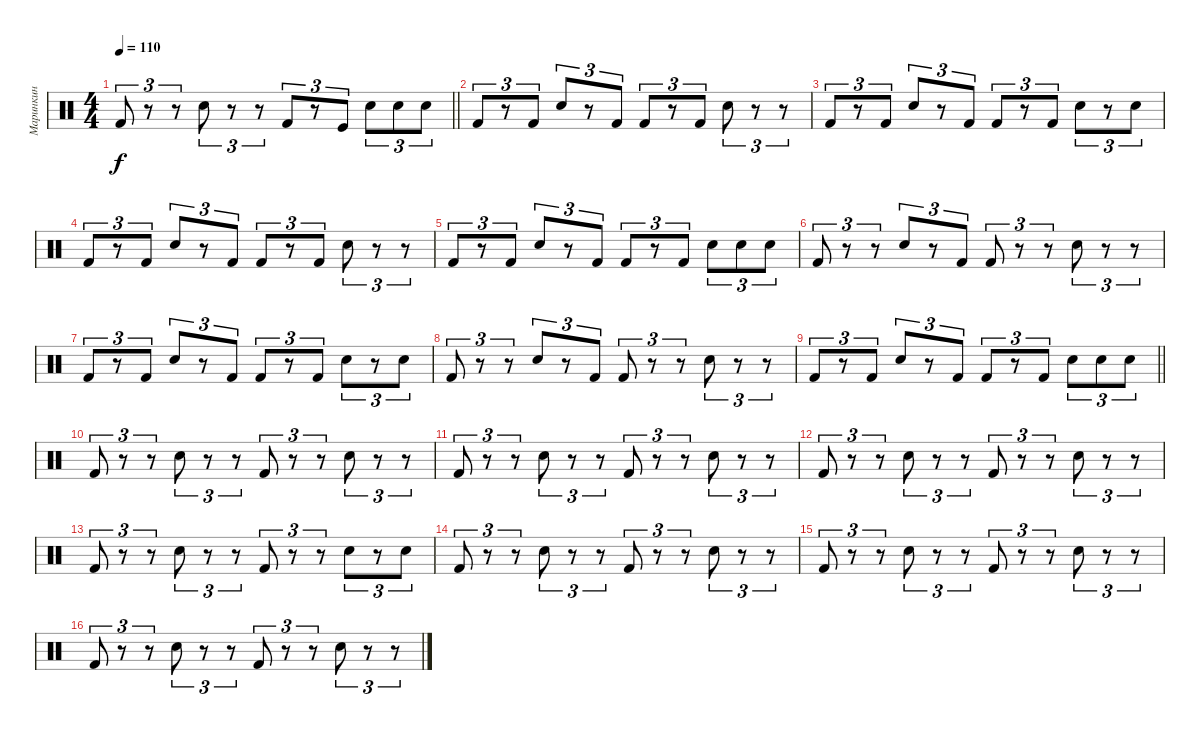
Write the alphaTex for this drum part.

\track ("Маринкин " "Маринкин ") {instrument percussion}
\staff {score}
\articulation defaults
\ts (4 4)
\tempo 110
\clef neutral
\barLineRight lightlight
\ks c "Kick (hit) 2".8{tu (3 2) dy f}
r.8{tu (3 2)} r.8{tu (3 2)} "Snare (hit) 2".8{tu (3 2)} r.8{tu (3 2)} r.8{tu (3 2)} "Kick (hit) 2".8{tu (3 2)} r.8{tu (3 2)} "Kick (hit)".8{tu (3 2)} "Snare (hit) 2".8{tu (3 2)} "Snare (hit) 2".8{tu (3 2)} "Snare (hit) 2".8{tu (3 2)} |
"Kick (hit) 2".8{tu (3 2)} r.8{tu (3 2)} "Kick (hit) 2".8{tu (3 2)} "Snare (hit) 2".8{tu (3 2)} r.8{tu (3 2)} "Kick (hit) 2".8{tu (3 2)} "Kick (hit) 2".8{tu (3 2)} r.8{tu (3 2)} "Kick (hit) 2".8{tu (3 2)} "Snare (hit) 2".8{tu (3 2)} r.8{tu (3 2)} r.8{tu (3 2)} |
"Kick (hit) 2".8{tu (3 2)} r.8{tu (3 2)} "Kick (hit) 2".8{tu (3 2)} "Snare (hit) 2".8{tu (3 2)} r.8{tu (3 2)} "Kick (hit) 2".8{tu (3 2)} "Kick (hit) 2".8{tu (3 2)} r.8{tu (3 2)} "Kick (hit) 2".8{tu (3 2)} "Snare (hit) 2".8{tu (3 2)} r.8{tu (3 2)} "Snare (hit) 2".8{tu (3 2)} |
"Kick (hit) 2".8{tu (3 2)} r.8{tu (3 2)} "Kick (hit) 2".8{tu (3 2)} "Snare (hit) 2".8{tu (3 2)} r.8{tu (3 2)} "Kick (hit) 2".8{tu (3 2)} "Kick (hit) 2".8{tu (3 2)} r.8{tu (3 2)} "Kick (hit) 2".8{tu (3 2)} "Snare (hit) 2".8{tu (3 2)} r.8{tu (3 2)} r.8{tu (3 2)} |
"Kick (hit) 2".8{tu (3 2)} r.8{tu (3 2)} "Kick (hit) 2".8{tu (3 2)} "Snare (hit) 2".8{tu (3 2)} r.8{tu (3 2)} "Kick (hit) 2".8{tu (3 2)} "Kick (hit) 2".8{tu (3 2)} r.8{tu (3 2)} "Kick (hit) 2".8{tu (3 2)} "Snare (hit) 2".8{tu (3 2)} "Snare (hit) 2".8{tu (3 2)} "Snare (hit) 2".8{tu (3 2)} |
"Kick (hit) 2".8{tu (3 2)} r.8{tu (3 2)} r.8{tu (3 2)} "Snare (hit) 2".8{tu (3 2)} r.8{tu (3 2)} "Kick (hit) 2".8{tu (3 2)} "Kick (hit) 2".8{tu (3 2)} r.8{tu (3 2)} r.8{tu (3 2)} "Snare (hit) 2".8{tu (3 2)} r.8{tu (3 2)} r.8{tu (3 2)} |
"Kick (hit) 2".8{tu (3 2)} r.8{tu (3 2)} "Kick (hit) 2".8{tu (3 2)} "Snare (hit) 2".8{tu (3 2)} r.8{tu (3 2)} "Kick (hit) 2".8{tu (3 2)} "Kick (hit) 2".8{tu (3 2)} r.8{tu (3 2)} "Kick (hit) 2".8{tu (3 2)} "Snare (hit) 2".8{tu (3 2)} r.8{tu (3 2)} "Snare (hit) 2".8{tu (3 2)} |
"Kick (hit) 2".8{tu (3 2)} r.8{tu (3 2)} r.8{tu (3 2)} "Snare (hit) 2".8{tu (3 2)} r.8{tu (3 2)} "Kick (hit) 2".8{tu (3 2)} "Kick (hit) 2".8{tu (3 2)} r.8{tu (3 2)} r.8{tu (3 2)} "Snare (hit) 2".8{tu (3 2)} r.8{tu (3 2)} r.8{tu (3 2)} |
\barLineRight lightlight "Kick (hit) 2".8{tu (3 2)}
r.8{tu (3 2)} "Kick (hit) 2".8{tu (3 2)} "Snare (hit) 2".8{tu (3 2)} r.8{tu (3 2)} "Kick (hit) 2".8{tu (3 2)} "Kick (hit) 2".8{tu (3 2)} r.8{tu (3 2)} "Kick (hit) 2".8{tu (3 2)} "Snare (hit) 2".8{tu (3 2)} "Snare (hit) 2".8{tu (3 2)} "Snare (hit) 2".8{tu (3 2)} |
"Kick (hit) 2".8{tu (3 2)} r.8{tu (3 2)} r.8{tu (3 2)} "Snare (hit) 2".8{tu (3 2)} r.8{tu (3 2)} r.8{tu (3 2)} "Kick (hit) 2".8{tu (3 2)} r.8{tu (3 2)} r.8{tu (3 2)} "Snare (hit) 2".8{tu (3 2)} r.8{tu (3 2)} r.8{tu (3 2)} |
"Kick (hit) 2".8{tu (3 2)} r.8{tu (3 2)} r.8{tu (3 2)} "Snare (hit) 2".8{tu (3 2)} r.8{tu (3 2)} r.8{tu (3 2)} "Kick (hit) 2".8{tu (3 2)} r.8{tu (3 2)} r.8{tu (3 2)} "Snare (hit) 2".8{tu (3 2)} r.8{tu (3 2)} r.8{tu (3 2)} |
"Kick (hit) 2".8{tu (3 2)} r.8{tu (3 2)} r.8{tu (3 2)} "Snare (hit) 2".8{tu (3 2)} r.8{tu (3 2)} r.8{tu (3 2)} "Kick (hit) 2".8{tu (3 2)} r.8{tu (3 2)} r.8{tu (3 2)} "Snare (hit) 2".8{tu (3 2)} r.8{tu (3 2)} r.8{tu (3 2)} |
"Kick (hit) 2".8{tu (3 2)} r.8{tu (3 2)} r.8{tu (3 2)} "Snare (hit) 2".8{tu (3 2)} r.8{tu (3 2)} r.8{tu (3 2)} "Kick (hit) 2".8{tu (3 2)} r.8{tu (3 2)} r.8{tu (3 2)} "Snare (hit) 2".8{tu (3 2)} r.8{tu (3 2)} "Snare (hit) 2".8{tu (3 2)} |
"Kick (hit) 2".8{tu (3 2)} r.8{tu (3 2)} r.8{tu (3 2)} "Snare (hit) 2".8{tu (3 2)} r.8{tu (3 2)} r.8{tu (3 2)} "Kick (hit) 2".8{tu (3 2)} r.8{tu (3 2)} r.8{tu (3 2)} "Snare (hit) 2".8{tu (3 2)} r.8{tu (3 2)} r.8{tu (3 2)} |
"Kick (hit) 2".8{tu (3 2)} r.8{tu (3 2)} r.8{tu (3 2)} "Snare (hit) 2".8{tu (3 2)} r.8{tu (3 2)} r.8{tu (3 2)} "Kick (hit) 2".8{tu (3 2)} r.8{tu (3 2)} r.8{tu (3 2)} "Snare (hit) 2".8{tu (3 2)} r.8{tu (3 2)} r.8{tu (3 2)} |
"Kick (hit) 2".8{tu (3 2)} r.8{tu (3 2)} r.8{tu (3 2)} "Snare (hit) 2".8{tu (3 2)} r.8{tu (3 2)} r.8{tu (3 2)} "Kick (hit) 2".8{tu (3 2)} r.8{tu (3 2)} r.8{tu (3 2)} "Snare (hit) 2".8{tu (3 2)} r.8{tu (3 2)} r.8{tu (3 2)}
